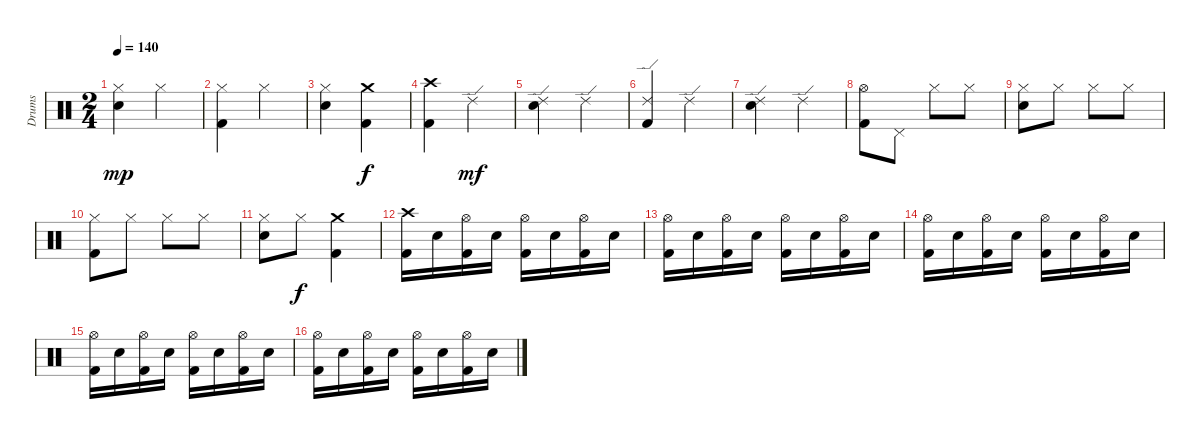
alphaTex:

\track ("Drums" "Drums") {instrument percussion}
\staff {score}
\articulation defaults
\ts (2 4)
\tempo 140
\clef neutral
\ks c
("Electric Snare (hit)" "Hi-Hat (closed)").4{dy mp} "Hi-Hat (closed)".4 |
("Kick (hit) 2" "Hi-Hat (closed)").4 "Hi-Hat (closed)".4 |
("Electric Snare (hit)" "Hi-Hat (closed)").4 ("Kick (hit) 2" "Crash medium (hit)").4{dy f} |
("Kick (hit) 2" "Crash high (hit)").4 "Ride (edge) 2".4{dy mf} |
("Electric Snare (hit)" "Ride (edge) 2").4 "Ride (edge) 2".4 |
("Kick (hit) 2" "Ride (edge) 2").4 "Ride (edge) 2".4 |
("Electric Snare (hit)" "Ride (edge) 2").4 "Ride (edge) 2".4 |
("Kick (hit) 2" "Hi-Hat (open)").8 "Pedal Hi-Hat (hit)".8 "Hi-Hat (closed)".8 "Hi-Hat (closed)".8 |
("Electric Snare (hit)" "Hi-Hat (closed)").8 "Hi-Hat (closed)".8 "Hi-Hat (closed)".8 "Hi-Hat (closed)".8 |
("Kick (hit) 2" "Hi-Hat (closed)").8 "Hi-Hat (closed)".8 "Hi-Hat (closed)".8 "Hi-Hat (closed)".8 |
("Electric Snare (hit)" "Hi-Hat (closed)").8 "Hi-Hat (closed)".8{dy f} ("Kick (hit) 2" "Crash medium (hit)").4 |
("Kick (hit) 2" "Crash high (hit)").16 "Electric Snare (hit)".16 ("Kick (hit) 2" "Hi-Hat (open)").16 "Electric Snare (hit)".16 ("Kick (hit) 2" "Hi-Hat (open)").16 "Electric Snare (hit)".16 ("Kick (hit) 2" "Hi-Hat (open)").16 "Electric Snare (hit)".16 |
("Kick (hit) 2" "Hi-Hat (open)").16 "Electric Snare (hit)".16 ("Kick (hit) 2" "Hi-Hat (open)").16 "Electric Snare (hit)".16 ("Kick (hit) 2" "Hi-Hat (open)").16 "Electric Snare (hit)".16 ("Kick (hit) 2" "Hi-Hat (open)").16 "Electric Snare (hit)".16 |
("Kick (hit) 2" "Hi-Hat (open)").16 "Electric Snare (hit)".16 ("Kick (hit) 2" "Hi-Hat (open)").16 "Electric Snare (hit)".16 ("Kick (hit) 2" "Hi-Hat (open)").16 "Electric Snare (hit)".16 ("Kick (hit) 2" "Hi-Hat (open)").16 "Electric Snare (hit)".16 |
("Kick (hit) 2" "Hi-Hat (open)").16 "Electric Snare (hit)".16 ("Kick (hit) 2" "Hi-Hat (open)").16 "Electric Snare (hit)".16 ("Kick (hit) 2" "Hi-Hat (open)").16 "Electric Snare (hit)".16 ("Kick (hit) 2" "Hi-Hat (open)").16 "Electric Snare (hit)".16 |
("Kick (hit) 2" "Hi-Hat (open)").16 "Electric Snare (hit)".16 ("Kick (hit) 2" "Hi-Hat (open)").16 "Electric Snare (hit)".16 ("Kick (hit) 2" "Hi-Hat (open)").16 "Electric Snare (hit)".16 ("Kick (hit) 2" "Hi-Hat (open)").16 "Electric Snare (hit)".16
